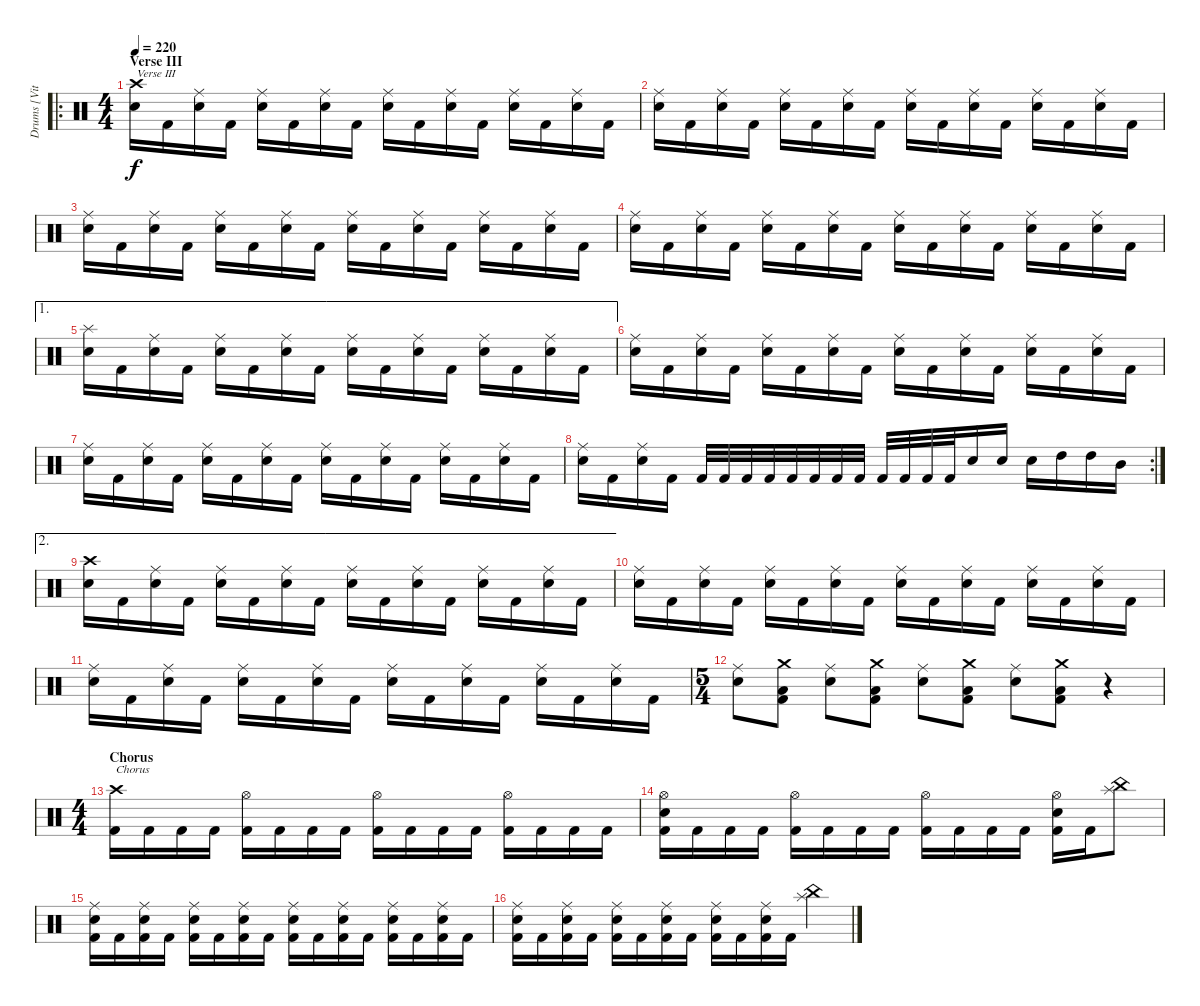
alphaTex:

\track ("Drums [Vitek]" "Drums [Vit") {instrument percussion}
\staff {score}
\articulation defaults
\ro
\ts (4 4)
\section ("" "Verse III")
\tempo 220
\clef neutral
\ks c
("Crash high (hit)" "Electric Snare (hit)").16{txt "Verse III" dy f} "Kick (hit) 2".16 ("Ride (middle)" "Electric Snare (hit)").16 "Kick (hit) 2".16 ("Ride (middle)" "Electric Snare (hit)").16 "Kick (hit) 2".16 ("Ride (middle)" "Electric Snare (hit)").16 "Kick (hit) 2".16 ("Ride (middle)" "Electric Snare (hit)").16 "Kick (hit) 2".16 ("Ride (middle)" "Electric Snare (hit)").16 "Kick (hit) 2".16 ("Ride (middle)" "Electric Snare (hit)").16 "Kick (hit) 2".16 ("Ride (middle)" "Electric Snare (hit)").16 "Kick (hit) 2".16 |
("Ride (middle)" "Electric Snare (hit)").16 "Kick (hit) 2".16 ("Ride (middle)" "Electric Snare (hit)").16 "Kick (hit) 2".16 ("Ride (middle)" "Electric Snare (hit)").16 "Kick (hit) 2".16 ("Ride (middle)" "Electric Snare (hit)").16 "Kick (hit) 2".16 ("Ride (middle)" "Electric Snare (hit)").16 "Kick (hit) 2".16 ("Ride (middle)" "Electric Snare (hit)").16 "Kick (hit) 2".16 ("Ride (middle)" "Electric Snare (hit)").16 "Kick (hit) 2".16 ("Ride (middle)" "Electric Snare (hit)").16 "Kick (hit) 2".16 |
("Ride (middle)" "Electric Snare (hit)").16 "Kick (hit) 2".16 ("Ride (middle)" "Electric Snare (hit)").16 "Kick (hit) 2".16 ("Ride (middle)" "Electric Snare (hit)").16 "Kick (hit) 2".16 ("Ride (middle)" "Electric Snare (hit)").16 "Kick (hit) 2".16 ("Ride (middle)" "Electric Snare (hit)").16 "Kick (hit) 2".16 ("Ride (middle)" "Electric Snare (hit)").16 "Kick (hit) 2".16 ("Ride (middle)" "Electric Snare (hit)").16 "Kick (hit) 2".16 ("Ride (middle)" "Electric Snare (hit)").16 "Kick (hit) 2".16 |
("Ride (middle)" "Electric Snare (hit)").16 "Kick (hit) 2".16 ("Ride (middle)" "Electric Snare (hit)").16 "Kick (hit) 2".16 ("Ride (middle)" "Electric Snare (hit)").16 "Kick (hit) 2".16 ("Ride (middle)" "Electric Snare (hit)").16 "Kick (hit) 2".16 ("Ride (middle)" "Electric Snare (hit)").16 "Kick (hit) 2".16 ("Ride (middle)" "Electric Snare (hit)").16 "Kick (hit) 2".16 ("Ride (middle)" "Electric Snare (hit)").16 "Kick (hit) 2".16 ("Ride (middle)" "Electric Snare (hit)").16 "Kick (hit) 2".16 |
\ae 1
("Splash (hit)" "Electric Snare (hit)").16 "Kick (hit) 2".16 ("Ride (middle)" "Electric Snare (hit)").16 "Kick (hit) 2".16 ("Ride (middle)" "Electric Snare (hit)").16 "Kick (hit) 2".16 ("Ride (middle)" "Electric Snare (hit)").16 "Kick (hit) 2".16 ("Ride (middle)" "Electric Snare (hit)").16 "Kick (hit) 2".16 ("Ride (middle)" "Electric Snare (hit)").16 "Kick (hit) 2".16 ("Ride (middle)" "Electric Snare (hit)").16 "Kick (hit) 2".16 ("Ride (middle)" "Electric Snare (hit)").16 "Kick (hit) 2".16 |
("Ride (middle)" "Electric Snare (hit)").16 "Kick (hit) 2".16 ("Ride (middle)" "Electric Snare (hit)").16 "Kick (hit) 2".16 ("Ride (middle)" "Electric Snare (hit)").16 "Kick (hit) 2".16 ("Ride (middle)" "Electric Snare (hit)").16 "Kick (hit) 2".16 ("Ride (middle)" "Electric Snare (hit)").16 "Kick (hit) 2".16 ("Ride (middle)" "Electric Snare (hit)").16 "Kick (hit) 2".16 ("Ride (middle)" "Electric Snare (hit)").16 "Kick (hit) 2".16 ("Ride (middle)" "Electric Snare (hit)").16 "Kick (hit) 2".16 |
("Ride (middle)" "Electric Snare (hit)").16 "Kick (hit) 2".16 ("Ride (middle)" "Electric Snare (hit)").16 "Kick (hit) 2".16 ("Ride (middle)" "Electric Snare (hit)").16 "Kick (hit) 2".16 ("Ride (middle)" "Electric Snare (hit)").16 "Kick (hit) 2".16 ("Ride (middle)" "Electric Snare (hit)").16 "Kick (hit) 2".16 ("Ride (middle)" "Electric Snare (hit)").16 "Kick (hit) 2".16 ("Ride (middle)" "Electric Snare (hit)").16 "Kick (hit) 2".16 ("Ride (middle)" "Electric Snare (hit)").16 "Kick (hit) 2".16 |
\rc 2
("Ride (middle)" "Electric Snare (hit)").16 "Kick (hit) 2".16 ("Ride (middle)" "Electric Snare (hit)").16 "Kick (hit) 2".16 "Kick (hit) 2".32 "Kick (hit) 2".32 "Kick (hit) 2".32 "Kick (hit) 2".32 "Kick (hit) 2".32 "Kick (hit) 2".32 "Kick (hit) 2".32 "Kick (hit) 2".32 "Kick (hit) 2".32 "Kick (hit) 2".32 "Kick (hit) 2".32 "Kick (hit) 2".32 "Electric Snare (hit)".16 "Electric Snare (hit)".16 "Electric Snare (hit)".16 "High Tom (hit)".16 "High Tom (hit)".16 "Mid Tom (hit)".16 |
\ae 2
("Crash high (hit)" "Electric Snare (hit)").16 "Kick (hit) 2".16 ("Ride (middle)" "Electric Snare (hit)").16 "Kick (hit) 2".16 ("Ride (middle)" "Electric Snare (hit)").16 "Kick (hit) 2".16 ("Ride (middle)" "Electric Snare (hit)").16 "Kick (hit) 2".16 ("Ride (middle)" "Electric Snare (hit)").16 "Kick (hit) 2".16 ("Ride (middle)" "Electric Snare (hit)").16 "Kick (hit) 2".16 ("Ride (middle)" "Electric Snare (hit)").16 "Kick (hit) 2".16 ("Ride (middle)" "Electric Snare (hit)").16 "Kick (hit) 2".16 |
("Ride (middle)" "Electric Snare (hit)").16 "Kick (hit) 2".16 ("Ride (middle)" "Electric Snare (hit)").16 "Kick (hit) 2".16 ("Ride (middle)" "Electric Snare (hit)").16 "Kick (hit) 2".16 ("Ride (middle)" "Electric Snare (hit)").16 "Kick (hit) 2".16 ("Ride (middle)" "Electric Snare (hit)").16 "Kick (hit) 2".16 ("Ride (middle)" "Electric Snare (hit)").16 "Kick (hit) 2".16 ("Ride (middle)" "Electric Snare (hit)").16 "Kick (hit) 2".16 ("Ride (middle)" "Electric Snare (hit)").16 "Kick (hit) 2".16 |
("Ride (middle)" "Electric Snare (hit)").16 "Kick (hit) 2".16 ("Ride (middle)" "Electric Snare (hit)").16 "Kick (hit) 2".16 ("Ride (middle)" "Electric Snare (hit)").16 "Kick (hit) 2".16 ("Ride (middle)" "Electric Snare (hit)").16 "Kick (hit) 2".16 ("Ride (middle)" "Electric Snare (hit)").16 "Kick (hit) 2".16 ("Ride (middle)" "Electric Snare (hit)").16 "Kick (hit) 2".16 ("Ride (middle)" "Electric Snare (hit)").16 "Kick (hit) 2".16 ("Ride (middle)" "Electric Snare (hit)").16 "Kick (hit) 2".16 |
\ts (5 4)
("Ride (middle)" "Electric Snare (hit)").8 ("Crash medium (hit)" "Low Tom (hit)" "Kick (hit) 2").8 ("Ride (middle)" "Electric Snare (hit)").8 ("Crash medium (hit)" "Low Tom (hit)" "Kick (hit) 2").8 ("Ride (middle)" "Electric Snare (hit)").8 ("Crash medium (hit)" "Low Tom (hit)" "Kick (hit) 2").8 ("Ride (middle)" "Electric Snare (hit)").8 ("Crash medium (hit)" "Low Tom (hit)" "Kick (hit) 2").8 r.4 |
\ts (4 4)
\section ("" "Chorus")
("Crash high (hit)" "Kick (hit) 2").16{txt "Chorus"} "Kick (hit) 2".16 "Kick (hit) 2".16 "Kick (hit) 2".16 ("Hi-Hat (open)" "Kick (hit) 2").16 "Kick (hit) 2".16 "Kick (hit) 2".16 "Kick (hit) 2".16 ("Hi-Hat (open)" "Kick (hit) 2").16 "Kick (hit) 2".16 "Kick (hit) 2".16 "Kick (hit) 2".16 ("Hi-Hat (open)" "Kick (hit) 2").16 "Kick (hit) 2".16 "Kick (hit) 2".16 "Kick (hit) 2".16 |
("Hi-Hat (open)" "Electric Snare (hit)" "Kick (hit) 2").16 "Kick (hit) 2".16 "Kick (hit) 2".16 "Kick (hit) 2".16 ("Hi-Hat (open)" "Kick (hit) 2").16 "Kick (hit) 2".16 "Kick (hit) 2".16 "Kick (hit) 2".16 ("Hi-Hat (open)" "Kick (hit) 2").16 "Kick (hit) 2".16 "Kick (hit) 2".16 "Kick (hit) 2".16 ("Hi-Hat (open)" "Electric Snare (hit)" "Kick (hit) 2").16 "Kick (hit) 2".16 ("Splash (hit)" "China (hit)").8 |
("Ride (middle)" "Electric Snare (hit)" "Kick (hit) 2").16 "Kick (hit) 2".16 ("Ride (middle)" "Electric Snare (hit)" "Kick (hit) 2").16 "Kick (hit) 2".16 ("Ride (middle)" "Electric Snare (hit)" "Kick (hit) 2").16 "Kick (hit) 2".16 ("Ride (middle)" "Electric Snare (hit)" "Kick (hit) 2").16 "Kick (hit) 2".16 ("Ride (middle)" "Electric Snare (hit)" "Kick (hit) 2").16 "Kick (hit) 2".16 ("Ride (middle)" "Electric Snare (hit)" "Kick (hit) 2").16 "Kick (hit) 2".16 ("Ride (middle)" "Electric Snare (hit)" "Kick (hit) 2").16 "Kick (hit) 2".16 ("Ride (middle)" "Electric Snare (hit)" "Kick (hit) 2").16 "Kick (hit) 2".16 |
("Ride (middle)" "Electric Snare (hit)" "Kick (hit) 2").16 "Kick (hit) 2".16 ("Ride (middle)" "Electric Snare (hit)" "Kick (hit) 2").16 "Kick (hit) 2".16 ("Ride (middle)" "Electric Snare (hit)" "Kick (hit) 2").16 "Kick (hit) 2".16 ("Ride (middle)" "Electric Snare (hit)" "Kick (hit) 2").16 "Kick (hit) 2".16 ("Ride (middle)" "Electric Snare (hit)" "Kick (hit) 2").16 "Kick (hit) 2".16 ("Ride (middle)" "Electric Snare (hit)" "Kick (hit) 2").16 "Kick (hit) 2".16 ("Splash (hit)" "China (hit)").4
